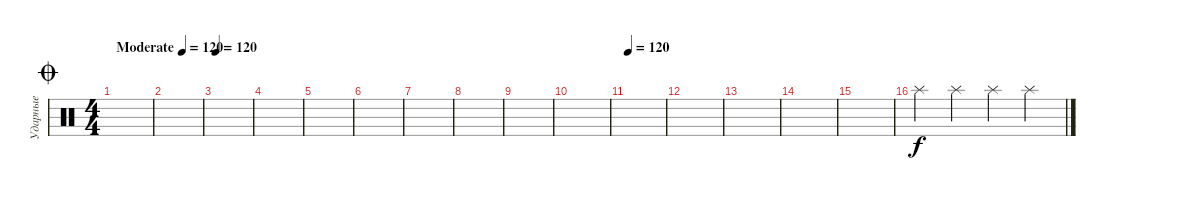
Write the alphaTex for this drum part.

\track ("Ударные" "Ударные") {instrument percussion}
\staff
\articulation defaults
\ts (4 4)
\jump coda
\tempo (120 "Moderate")
\clef neutral
\ks c
|
|
\tempo 120
|
|
|
|
|
|
|
|
\tempo 120
|
|
|
|
|
"Splash (hit)".4 "Splash (hit)".4 "Splash (hit)".4 "Splash (hit)".4
